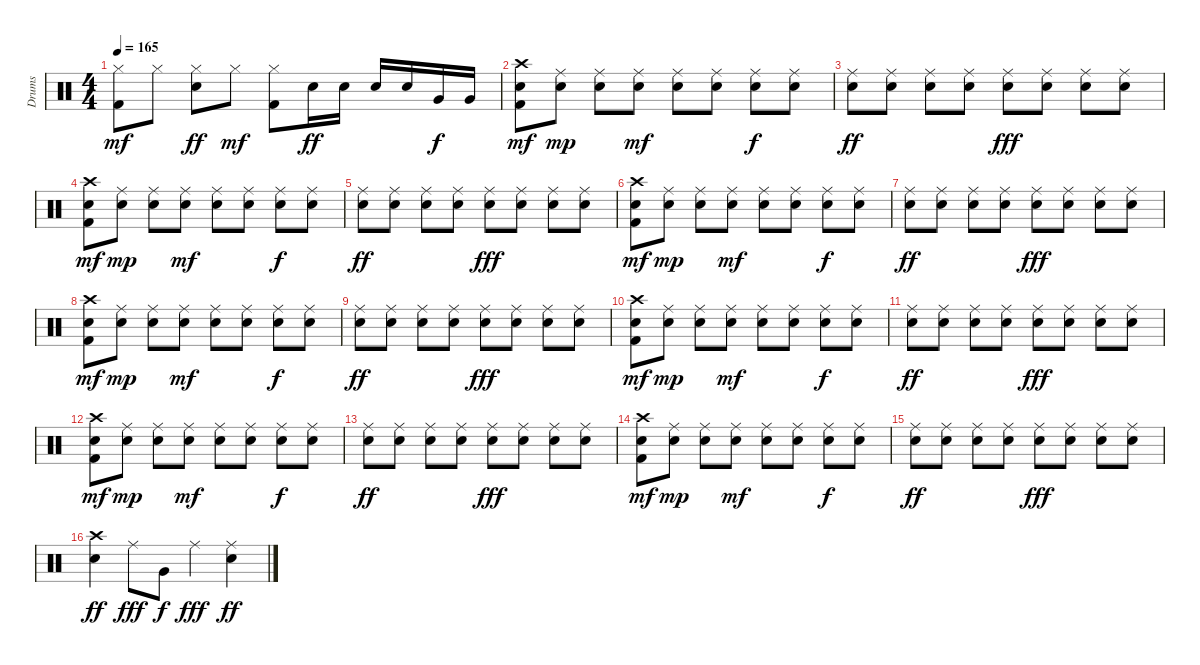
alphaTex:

\track ("Drums" "Drums") {instrument percussion}
\staff {score}
\articulation defaults
\ts (4 4)
\tempo 165
\clef neutral
\ks c
("Hi-Hat (closed)" "Kick (hit) 2").8{dy mf} "Hi-Hat (closed)".8 ("Hi-Hat (closed)" "Electric Snare (hit)").8{dy ff} "Hi-Hat (closed)".8{dy mf} ("Hi-Hat (closed)" "Kick (hit) 2").8 "Electric Snare (hit)".16{dy ff} "Electric Snare (hit)".16 "Electric Snare (hit)".16 "Electric Snare (hit)".16 "Very Low Tom (hit)".16{dy f} "Very Low Tom (hit)".16 |
("Crash high (hit)" "Electric Snare (hit)" "Kick (hit) 2").8{dy mf} ("Ride (middle)" "Electric Snare (hit)").8{dy mp} ("Ride (middle)" "Electric Snare (hit)").8 ("Ride (middle)" "Electric Snare (hit)").8{dy mf} ("Ride (middle)" "Electric Snare (hit)").8 ("Ride (middle)" "Electric Snare (hit)").8 ("Ride (middle)" "Electric Snare (hit)").8{dy f} ("Ride (middle)" "Electric Snare (hit)").8 |
("Ride (middle)" "Electric Snare (hit)").8{dy ff} ("Ride (middle)" "Electric Snare (hit)").8 ("Ride (middle)" "Electric Snare (hit)").8 ("Ride (middle)" "Electric Snare (hit)").8 ("Ride (middle)" "Electric Snare (hit)").8{dy fff} ("Ride (middle)" "Electric Snare (hit)").8 ("Ride (middle)" "Electric Snare (hit)").8 ("Ride (middle)" "Electric Snare (hit)").8 |
("Crash high (hit)" "Electric Snare (hit)" "Kick (hit) 2").8{dy mf} ("Ride (middle)" "Electric Snare (hit)").8{dy mp} ("Ride (middle)" "Electric Snare (hit)").8 ("Ride (middle)" "Electric Snare (hit)").8{dy mf} ("Ride (middle)" "Electric Snare (hit)").8 ("Ride (middle)" "Electric Snare (hit)").8 ("Ride (middle)" "Electric Snare (hit)").8{dy f} ("Ride (middle)" "Electric Snare (hit)").8 |
("Ride (middle)" "Electric Snare (hit)").8{dy ff} ("Ride (middle)" "Electric Snare (hit)").8 ("Ride (middle)" "Electric Snare (hit)").8 ("Ride (middle)" "Electric Snare (hit)").8 ("Ride (middle)" "Electric Snare (hit)").8{dy fff} ("Ride (middle)" "Electric Snare (hit)").8 ("Ride (middle)" "Electric Snare (hit)").8 ("Ride (middle)" "Electric Snare (hit)").8 |
("Crash high (hit)" "Electric Snare (hit)" "Kick (hit) 2").8{dy mf} ("Ride (middle)" "Electric Snare (hit)").8{dy mp} ("Ride (middle)" "Electric Snare (hit)").8 ("Ride (middle)" "Electric Snare (hit)").8{dy mf} ("Ride (middle)" "Electric Snare (hit)").8 ("Ride (middle)" "Electric Snare (hit)").8 ("Ride (middle)" "Electric Snare (hit)").8{dy f} ("Ride (middle)" "Electric Snare (hit)").8 |
("Ride (middle)" "Electric Snare (hit)").8{dy ff} ("Ride (middle)" "Electric Snare (hit)").8 ("Ride (middle)" "Electric Snare (hit)").8 ("Ride (middle)" "Electric Snare (hit)").8 ("Ride (middle)" "Electric Snare (hit)").8{dy fff} ("Ride (middle)" "Electric Snare (hit)").8 ("Ride (middle)" "Electric Snare (hit)").8 ("Ride (middle)" "Electric Snare (hit)").8 |
("Crash high (hit)" "Electric Snare (hit)" "Kick (hit) 2").8{dy mf} ("Ride (middle)" "Electric Snare (hit)").8{dy mp} ("Ride (middle)" "Electric Snare (hit)").8 ("Ride (middle)" "Electric Snare (hit)").8{dy mf} ("Ride (middle)" "Electric Snare (hit)").8 ("Ride (middle)" "Electric Snare (hit)").8 ("Ride (middle)" "Electric Snare (hit)").8{dy f} ("Ride (middle)" "Electric Snare (hit)").8 |
("Ride (middle)" "Electric Snare (hit)").8{dy ff} ("Ride (middle)" "Electric Snare (hit)").8 ("Ride (middle)" "Electric Snare (hit)").8 ("Ride (middle)" "Electric Snare (hit)").8 ("Ride (middle)" "Electric Snare (hit)").8{dy fff} ("Ride (middle)" "Electric Snare (hit)").8 ("Ride (middle)" "Electric Snare (hit)").8 ("Ride (middle)" "Electric Snare (hit)").8 |
("Crash high (hit)" "Electric Snare (hit)" "Kick (hit) 2").8{dy mf} ("Ride (middle)" "Electric Snare (hit)").8{dy mp} ("Ride (middle)" "Electric Snare (hit)").8 ("Ride (middle)" "Electric Snare (hit)").8{dy mf} ("Ride (middle)" "Electric Snare (hit)").8 ("Ride (middle)" "Electric Snare (hit)").8 ("Ride (middle)" "Electric Snare (hit)").8{dy f} ("Ride (middle)" "Electric Snare (hit)").8 |
("Ride (middle)" "Electric Snare (hit)").8{dy ff} ("Ride (middle)" "Electric Snare (hit)").8 ("Ride (middle)" "Electric Snare (hit)").8 ("Ride (middle)" "Electric Snare (hit)").8 ("Ride (middle)" "Electric Snare (hit)").8{dy fff} ("Ride (middle)" "Electric Snare (hit)").8 ("Ride (middle)" "Electric Snare (hit)").8 ("Ride (middle)" "Electric Snare (hit)").8 |
("Crash high (hit)" "Electric Snare (hit)" "Kick (hit) 2").8{dy mf} ("Ride (middle)" "Electric Snare (hit)").8{dy mp} ("Ride (middle)" "Electric Snare (hit)").8 ("Ride (middle)" "Electric Snare (hit)").8{dy mf} ("Ride (middle)" "Electric Snare (hit)").8 ("Ride (middle)" "Electric Snare (hit)").8 ("Ride (middle)" "Electric Snare (hit)").8{dy f} ("Ride (middle)" "Electric Snare (hit)").8 |
("Ride (middle)" "Electric Snare (hit)").8{dy ff} ("Ride (middle)" "Electric Snare (hit)").8 ("Ride (middle)" "Electric Snare (hit)").8 ("Ride (middle)" "Electric Snare (hit)").8 ("Ride (middle)" "Electric Snare (hit)").8{dy fff} ("Ride (middle)" "Electric Snare (hit)").8 ("Ride (middle)" "Electric Snare (hit)").8 ("Ride (middle)" "Electric Snare (hit)").8 |
("Crash high (hit)" "Electric Snare (hit)" "Kick (hit) 2").8{dy mf} ("Ride (middle)" "Electric Snare (hit)").8{dy mp} ("Ride (middle)" "Electric Snare (hit)").8 ("Ride (middle)" "Electric Snare (hit)").8{dy mf} ("Ride (middle)" "Electric Snare (hit)").8 ("Ride (middle)" "Electric Snare (hit)").8 ("Ride (middle)" "Electric Snare (hit)").8{dy f} ("Ride (middle)" "Electric Snare (hit)").8 |
("Ride (middle)" "Electric Snare (hit)").8{dy ff} ("Ride (middle)" "Electric Snare (hit)").8 ("Ride (middle)" "Electric Snare (hit)").8 ("Ride (middle)" "Electric Snare (hit)").8 ("Ride (middle)" "Electric Snare (hit)").8{dy fff} ("Ride (middle)" "Electric Snare (hit)").8 ("Ride (middle)" "Electric Snare (hit)").8 ("Ride (middle)" "Electric Snare (hit)").8 |
("Crash high (hit)" "Electric Snare (hit)").4{dy ff} "Ride (middle)".8{dy fff} "Very Low Tom (hit)".8{dy f} "Ride (middle)".4{dy fff} ("Ride (middle)" "Electric Snare (hit)").4{dy ff}
